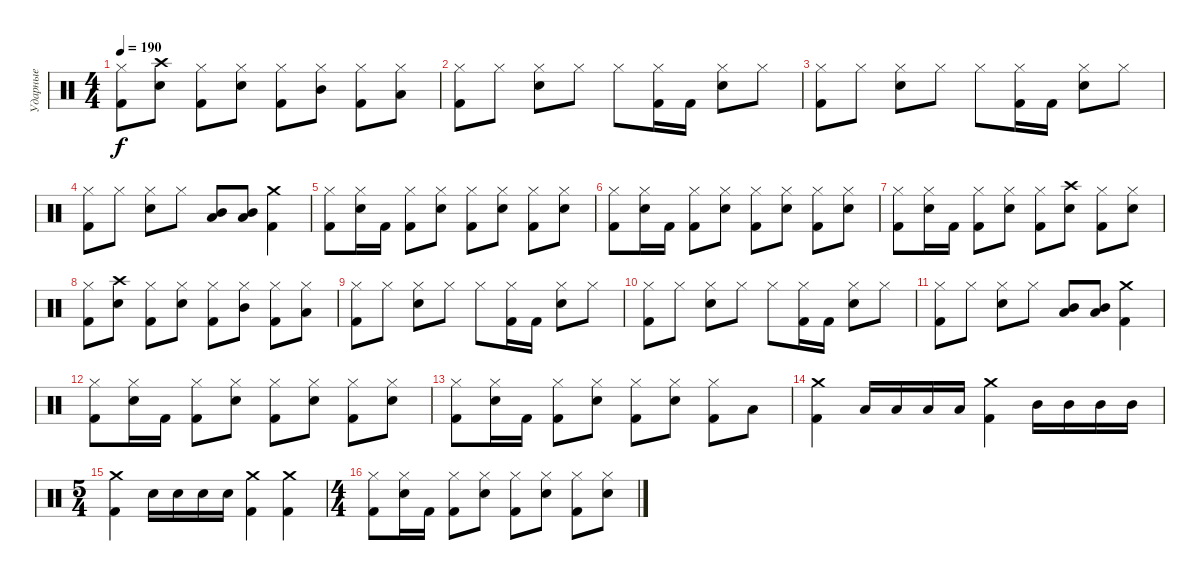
\track ("Ударные" "Ударные") {instrument percussion}
\staff {score}
\articulation defaults
\ts (4 4)
\tempo 190
\clef neutral
\ks c
("Kick (hit) 2" "Hi-Hat (closed)").8{dy f} ("Snare (hit) 2" "Crash high (hit)").8 ("Kick (hit) 2" "Hi-Hat (closed)").8 ("Snare (hit) 2" "Hi-Hat (closed)").8 ("Kick (hit) 2" "Hi-Hat (closed)").8 ("Hi-Hat (closed)" "Mid Tom (hit)").8 ("Kick (hit) 2" "Hi-Hat (closed)").8 ("Hi-Hat (closed)" "Low Tom (hit)").8 |
("Kick (hit) 2" "Hi-Hat (closed)").8 "Hi-Hat (closed)".8 ("Snare (hit) 2" "Hi-Hat (closed)").8 "Hi-Hat (closed)".8 "Hi-Hat (closed)".8 ("Kick (hit) 2" "Hi-Hat (closed)").16 "Kick (hit) 2".16 ("Snare (hit) 2" "Hi-Hat (closed)").8 "Hi-Hat (closed)".8 |
("Kick (hit) 2" "Hi-Hat (closed)").8 "Hi-Hat (closed)".8 ("Snare (hit) 2" "Hi-Hat (closed)").8 "Hi-Hat (closed)".8 "Hi-Hat (closed)".8 ("Kick (hit) 2" "Hi-Hat (closed)").16 "Kick (hit) 2".16 ("Snare (hit) 2" "Hi-Hat (closed)").8 "Hi-Hat (closed)".8 |
("Kick (hit) 2" "Hi-Hat (closed)").8 "Hi-Hat (closed)".8 ("Snare (hit) 2" "Hi-Hat (closed)").8 "Hi-Hat (closed)".8 ("Mid Tom (hit)" "Low Tom (hit)").8{bd 240} ("Mid Tom (hit)" "Low Tom (hit)").8{bu 240} ("Crash medium (hit)" "Kick (hit) 2").4 |
("Kick (hit) 2" "Hi-Hat (closed)").8 ("Snare (hit) 2" "Hi-Hat (closed)").16 "Kick (hit) 2".16 ("Kick (hit) 2" "Hi-Hat (closed)").8 ("Snare (hit) 2" "Hi-Hat (closed)").8 ("Kick (hit) 2" "Hi-Hat (closed)").8 ("Snare (hit) 2" "Hi-Hat (closed)").8 ("Kick (hit) 2" "Hi-Hat (closed)").8 ("Snare (hit) 2" "Hi-Hat (closed)").8 |
("Kick (hit) 2" "Hi-Hat (closed)").8 ("Snare (hit) 2" "Hi-Hat (closed)").16 "Kick (hit) 2".16 ("Kick (hit) 2" "Hi-Hat (closed)").8 ("Snare (hit) 2" "Hi-Hat (closed)").8 ("Kick (hit) 2" "Hi-Hat (closed)").8 ("Snare (hit) 2" "Hi-Hat (closed)").8 ("Kick (hit) 2" "Hi-Hat (closed)").8 ("Snare (hit) 2" "Hi-Hat (closed)").8 |
("Kick (hit) 2" "Hi-Hat (closed)").8 ("Snare (hit) 2" "Hi-Hat (closed)").16 "Kick (hit) 2".16 ("Kick (hit) 2" "Hi-Hat (closed)").8 ("Snare (hit) 2" "Hi-Hat (closed)").8 ("Kick (hit) 2" "Hi-Hat (closed)").8 ("Snare (hit) 2" "Crash high (hit)").8 ("Kick (hit) 2" "Hi-Hat (closed)").8 ("Snare (hit) 2" "Hi-Hat (closed)").8 |
("Kick (hit) 2" "Hi-Hat (closed)").8 ("Snare (hit) 2" "Crash high (hit)").8 ("Kick (hit) 2" "Hi-Hat (closed)").8 ("Snare (hit) 2" "Hi-Hat (closed)").8 ("Kick (hit) 2" "Hi-Hat (closed)").8 ("Hi-Hat (closed)" "Mid Tom (hit)").8 ("Kick (hit) 2" "Hi-Hat (closed)").8 ("Hi-Hat (closed)" "Low Tom (hit)").8 |
("Kick (hit) 2" "Hi-Hat (closed)").8 "Hi-Hat (closed)".8 ("Snare (hit) 2" "Hi-Hat (closed)").8 "Hi-Hat (closed)".8 "Hi-Hat (closed)".8 ("Kick (hit) 2" "Hi-Hat (closed)").16 "Kick (hit) 2".16 ("Snare (hit) 2" "Hi-Hat (closed)").8 "Hi-Hat (closed)".8 |
("Kick (hit) 2" "Hi-Hat (closed)").8 "Hi-Hat (closed)".8 ("Snare (hit) 2" "Hi-Hat (closed)").8 "Hi-Hat (closed)".8 "Hi-Hat (closed)".8 ("Kick (hit) 2" "Hi-Hat (closed)").16 "Kick (hit) 2".16 ("Snare (hit) 2" "Hi-Hat (closed)").8 "Hi-Hat (closed)".8 |
("Kick (hit) 2" "Hi-Hat (closed)").8 "Hi-Hat (closed)".8 ("Snare (hit) 2" "Hi-Hat (closed)").8 "Hi-Hat (closed)".8 ("Mid Tom (hit)" "Low Tom (hit)").8{bd 240} ("Mid Tom (hit)" "Low Tom (hit)").8{bu 240} ("Crash medium (hit)" "Kick (hit) 2").4 |
("Kick (hit) 2" "Hi-Hat (closed)").8 ("Snare (hit) 2" "Hi-Hat (closed)").16 "Kick (hit) 2".16 ("Kick (hit) 2" "Hi-Hat (closed)").8 ("Snare (hit) 2" "Hi-Hat (closed)").8 ("Kick (hit) 2" "Hi-Hat (closed)").8 ("Snare (hit) 2" "Hi-Hat (closed)").8 ("Kick (hit) 2" "Hi-Hat (closed)").8 ("Snare (hit) 2" "Hi-Hat (closed)").8 |
("Kick (hit) 2" "Hi-Hat (closed)").8 ("Snare (hit) 2" "Hi-Hat (closed)").16 "Kick (hit) 2".16 ("Kick (hit) 2" "Hi-Hat (closed)").8 ("Snare (hit) 2" "Hi-Hat (closed)").8 ("Kick (hit) 2" "Hi-Hat (closed)").8 ("Snare (hit) 2" "Hi-Hat (closed)").8 ("Kick (hit) 2" "Hi-Hat (closed)").8 "Low Tom (hit)".8 |
("Crash medium (hit)" "Kick (hit) 2").4 "Low Tom (hit)".16 "Low Tom (hit)".16 "Low Tom (hit)".16 "Low Tom (hit)".16 ("Crash medium (hit)" "Kick (hit) 2").4 "Mid Tom (hit)".16 "Mid Tom (hit)".16 "Mid Tom (hit)".16 "Mid Tom (hit)".16 |
\ts (5 4)
("Crash medium (hit)" "Kick (hit) 2").4 "Snare (hit) 2".16 "Snare (hit) 2".16 "Snare (hit) 2".16 "Snare (hit) 2".16 ("Crash medium (hit)" "Kick (hit) 2").4 ("Crash medium (hit)" "Kick (hit) 2").4 |
\ts (4 4)
("Kick (hit) 2" "Hi-Hat (closed)").8 ("Snare (hit) 2" "Hi-Hat (closed)").16 "Kick (hit) 2".16 ("Kick (hit) 2" "Hi-Hat (closed)").8 ("Snare (hit) 2" "Hi-Hat (closed)").8 ("Kick (hit) 2" "Hi-Hat (closed)").8 ("Snare (hit) 2" "Hi-Hat (closed)").8 ("Kick (hit) 2" "Hi-Hat (closed)").8 ("Snare (hit) 2" "Hi-Hat (closed)").8
